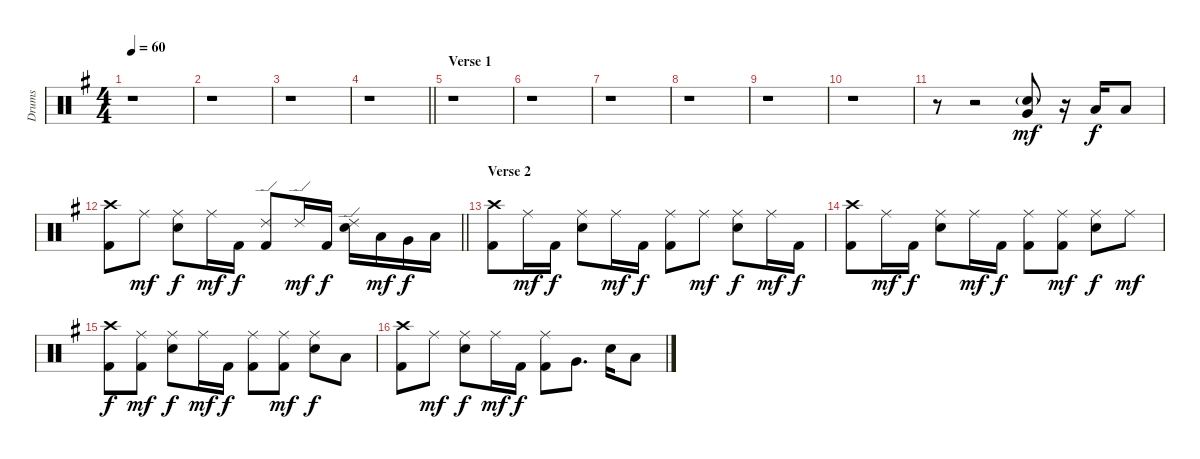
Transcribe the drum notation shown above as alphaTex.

\track ("Drums" "Drums") {instrument percussion}
\staff {score}
\articulation defaults
\ts (4 4)
\tempo 60
\clef neutral
\ks g
r.1{dy mf} |
r.1 |
r.1 |
\barLineRight lightlight
r.1 |
\section ("" "Verse 1")
r.1 |
r.1 |
r.1 |
r.1 |
r.1 |
r.1 |
r.8 r.2 ("Very Low Tom (hit)" "Snare (hit) 2"{g}).8 r.16 "Low Floor Tom (hit)".16{dy f} "Low Floor Tom (hit)".8 |
\barLineRight lightlight
("Crash high (hit)" "Kick (hit) 2").8 "Ride (middle)".8{dy mf} ("Ride (middle)" "Electric Snare (hit)").8{dy f} "Ride (middle)".16{dy mf} "Kick (hit) 2".16{dy f} ("Ride (edge) 2" "Kick (hit) 2").8 "Ride (edge) 2".16{dy mf} "Kick (hit) 2".16{dy f} ("Ride (edge) 2" "Electric Snare (hit)").16 "Low Tom (hit)".16{dy mf} "Very Low Tom (hit)".16{dy f} "Low Floor Tom (hit)".16 |
\section ("" "Verse 2")
("Crash high (hit)" "Kick (hit) 2").8 "Ride (middle)".16{dy mf} "Kick (hit) 2".16{dy f} ("Ride (middle)" "Electric Snare (hit)").8 "Ride (middle)".16{dy mf} "Kick (hit) 2".16{dy f} ("Ride (middle)" "Kick (hit) 2").8 "Ride (middle)".8{dy mf} ("Ride (middle)" "Electric Snare (hit)").8{dy f} "Ride (middle)".16{dy mf} "Kick (hit) 2".16{dy f} |
("Crash high (hit)" "Kick (hit) 2").8 "Ride (middle)".16{dy mf} "Kick (hit) 2".16{dy f} ("Ride (middle)" "Electric Snare (hit)").8 "Ride (middle)".16{dy mf} "Kick (hit) 2".16{dy f} ("Ride (middle)" "Kick (hit) 2").8 ("Ride (middle)" "Kick (hit) 2").8{dy mf} ("Ride (middle)" "Electric Snare (hit)").8{dy f} "Ride (middle)".8{dy mf} |
("Crash high (hit)" "Kick (hit) 2").8{dy f} ("Ride (middle)" "Kick (hit) 2").8{dy mf} ("Ride (middle)" "Electric Snare (hit)").8{dy f} "Ride (middle)".16{dy mf} "Kick (hit) 2".16{dy f} ("Ride (middle)" "Kick (hit) 2").8 ("Ride (middle)" "Kick (hit) 2").8{dy mf} ("Ride (middle)" "Electric Snare (hit)").8{dy f} "Low Floor Tom (hit)".8 |
("Crash high (hit)" "Kick (hit) 2").8 "Ride (middle)".8{dy mf} ("Ride (middle)" "Electric Snare (hit)").8{dy f} "Ride (middle)".16{dy mf} "Kick (hit) 2".16{dy f} ("Ride (middle)" "Kick (hit) 2").8 "Very Low Tom (hit)".8{d} "Electric Snare (hit)".16 "Low Floor Tom (hit)".8
